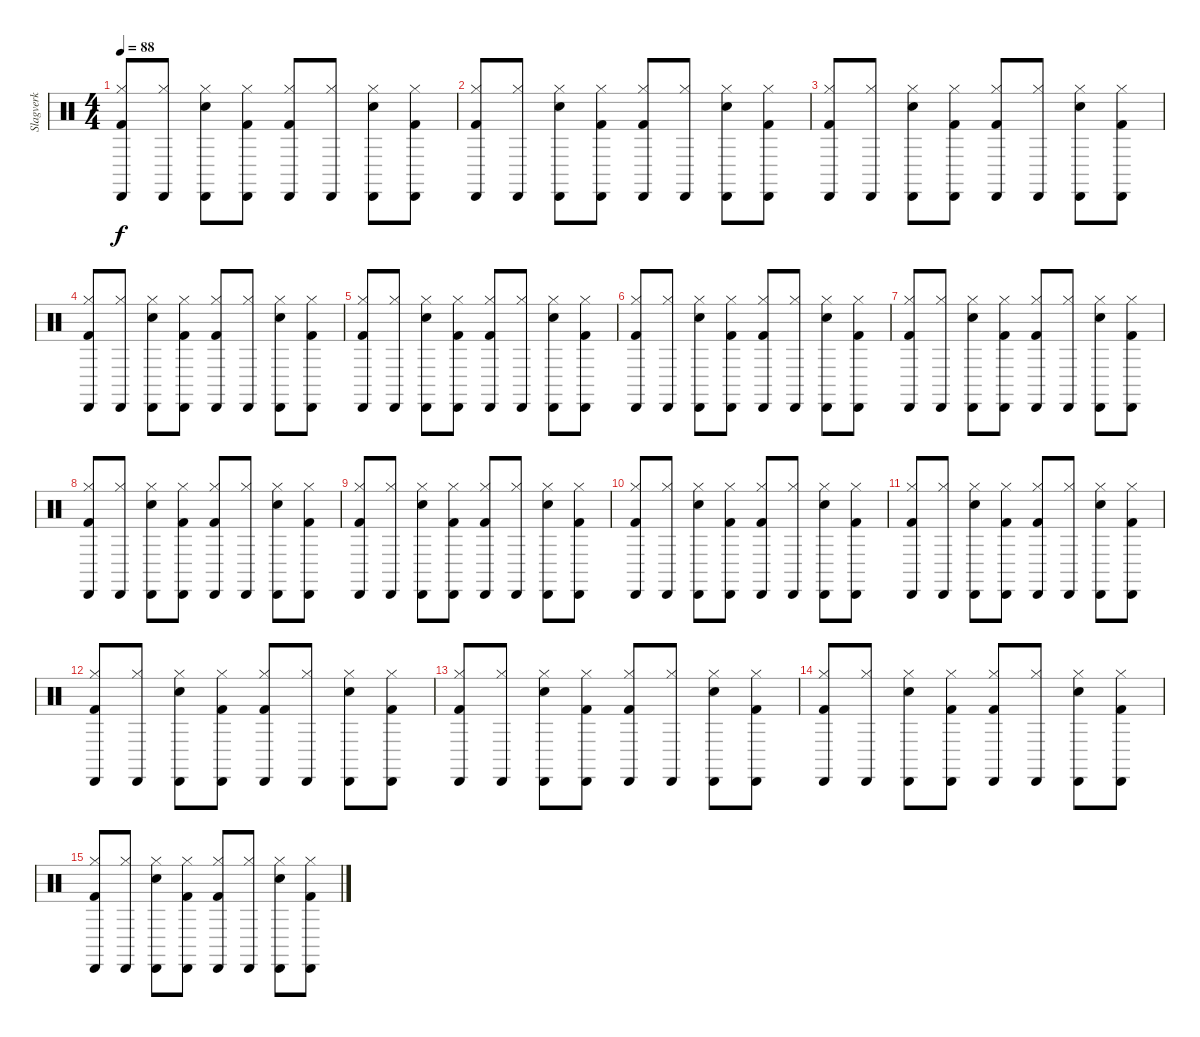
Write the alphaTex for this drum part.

\track ("Slagverk" "Slagverk") {instrument percussion}
\staff {score}
\articulation defaults
\ts (4 4)
\tempo 88
\clef neutral
\ks c
("Hi-Hat (closed)" "Cabasa (hit)" "Kick (hit) 2").8{dy f} ("Hi-Hat (closed)" "Cabasa (hit)").8 ("Hi-Hat (closed)" "Snare (hit) 2" "Cabasa (hit)").8 ("Hi-Hat (closed)" "Cabasa (hit)" "Kick (hit) 2").8 ("Hi-Hat (closed)" "Cabasa (hit)" "Kick (hit) 2").8 ("Hi-Hat (closed)" "Cabasa (hit)").8 ("Hi-Hat (closed)" "Snare (hit) 2" "Cabasa (hit)").8 ("Hi-Hat (closed)" "Cabasa (hit)" "Kick (hit) 2").8 |
("Hi-Hat (closed)" "Cabasa (hit)" "Kick (hit) 2").8 ("Hi-Hat (closed)" "Cabasa (hit)").8 ("Hi-Hat (closed)" "Snare (hit) 2" "Cabasa (hit)").8 ("Hi-Hat (closed)" "Cabasa (hit)" "Kick (hit) 2").8 ("Hi-Hat (closed)" "Cabasa (hit)" "Kick (hit) 2").8 ("Hi-Hat (closed)" "Cabasa (hit)").8 ("Hi-Hat (closed)" "Snare (hit) 2" "Cabasa (hit)").8 ("Hi-Hat (closed)" "Cabasa (hit)" "Kick (hit) 2").8 |
("Hi-Hat (closed)" "Cabasa (hit)" "Kick (hit) 2").8 ("Hi-Hat (closed)" "Cabasa (hit)").8 ("Hi-Hat (closed)" "Snare (hit) 2" "Cabasa (hit)").8 ("Hi-Hat (closed)" "Cabasa (hit)" "Kick (hit) 2").8 ("Hi-Hat (closed)" "Cabasa (hit)" "Kick (hit) 2").8 ("Hi-Hat (closed)" "Cabasa (hit)").8 ("Hi-Hat (closed)" "Snare (hit) 2" "Cabasa (hit)").8 ("Hi-Hat (closed)" "Cabasa (hit)" "Kick (hit) 2").8 |
("Hi-Hat (closed)" "Cabasa (hit)" "Kick (hit) 2").8 ("Hi-Hat (closed)" "Cabasa (hit)").8 ("Hi-Hat (closed)" "Snare (hit) 2" "Cabasa (hit)").8 ("Hi-Hat (closed)" "Cabasa (hit)" "Kick (hit) 2").8 ("Hi-Hat (closed)" "Cabasa (hit)" "Kick (hit) 2").8 ("Hi-Hat (closed)" "Cabasa (hit)").8 ("Hi-Hat (closed)" "Snare (hit) 2" "Cabasa (hit)").8 ("Hi-Hat (closed)" "Cabasa (hit)" "Kick (hit) 2").8 |
("Hi-Hat (closed)" "Cabasa (hit)" "Kick (hit) 2").8 ("Hi-Hat (closed)" "Cabasa (hit)").8 ("Hi-Hat (closed)" "Snare (hit) 2" "Cabasa (hit)").8 ("Hi-Hat (closed)" "Cabasa (hit)" "Kick (hit) 2").8 ("Hi-Hat (closed)" "Cabasa (hit)" "Kick (hit) 2").8 ("Hi-Hat (closed)" "Cabasa (hit)").8 ("Hi-Hat (closed)" "Snare (hit) 2" "Cabasa (hit)").8 ("Hi-Hat (closed)" "Cabasa (hit)" "Kick (hit) 2").8 |
("Hi-Hat (closed)" "Cabasa (hit)" "Kick (hit) 2").8 ("Hi-Hat (closed)" "Cabasa (hit)").8 ("Hi-Hat (closed)" "Snare (hit) 2" "Cabasa (hit)").8 ("Hi-Hat (closed)" "Cabasa (hit)" "Kick (hit) 2").8 ("Hi-Hat (closed)" "Cabasa (hit)" "Kick (hit) 2").8 ("Hi-Hat (closed)" "Cabasa (hit)").8 ("Hi-Hat (closed)" "Snare (hit) 2" "Cabasa (hit)").8 ("Hi-Hat (closed)" "Cabasa (hit)" "Kick (hit) 2").8 |
("Hi-Hat (closed)" "Cabasa (hit)" "Kick (hit) 2").8 ("Hi-Hat (closed)" "Cabasa (hit)").8 ("Hi-Hat (closed)" "Snare (hit) 2" "Cabasa (hit)").8 ("Hi-Hat (closed)" "Cabasa (hit)" "Kick (hit) 2").8 ("Hi-Hat (closed)" "Cabasa (hit)" "Kick (hit) 2").8 ("Hi-Hat (closed)" "Cabasa (hit)").8 ("Hi-Hat (closed)" "Snare (hit) 2" "Cabasa (hit)").8 ("Hi-Hat (closed)" "Cabasa (hit)" "Kick (hit) 2").8 |
("Hi-Hat (closed)" "Cabasa (hit)" "Kick (hit) 2").8 ("Hi-Hat (closed)" "Cabasa (hit)").8 ("Hi-Hat (closed)" "Snare (hit) 2" "Cabasa (hit)").8 ("Hi-Hat (closed)" "Cabasa (hit)" "Kick (hit) 2").8 ("Hi-Hat (closed)" "Cabasa (hit)" "Kick (hit) 2").8 ("Hi-Hat (closed)" "Cabasa (hit)").8 ("Hi-Hat (closed)" "Snare (hit) 2" "Cabasa (hit)").8 ("Hi-Hat (closed)" "Cabasa (hit)" "Kick (hit) 2").8 |
("Hi-Hat (closed)" "Cabasa (hit)" "Kick (hit) 2").8 ("Hi-Hat (closed)" "Cabasa (hit)").8 ("Hi-Hat (closed)" "Snare (hit) 2" "Cabasa (hit)").8 ("Hi-Hat (closed)" "Cabasa (hit)" "Kick (hit) 2").8 ("Hi-Hat (closed)" "Cabasa (hit)" "Kick (hit) 2").8 ("Hi-Hat (closed)" "Cabasa (hit)").8 ("Hi-Hat (closed)" "Snare (hit) 2" "Cabasa (hit)").8 ("Hi-Hat (closed)" "Cabasa (hit)" "Kick (hit) 2").8 |
("Hi-Hat (closed)" "Cabasa (hit)" "Kick (hit) 2").8 ("Hi-Hat (closed)" "Cabasa (hit)").8 ("Hi-Hat (closed)" "Snare (hit) 2" "Cabasa (hit)").8 ("Hi-Hat (closed)" "Cabasa (hit)" "Kick (hit) 2").8 ("Hi-Hat (closed)" "Cabasa (hit)" "Kick (hit) 2").8 ("Hi-Hat (closed)" "Cabasa (hit)").8 ("Hi-Hat (closed)" "Snare (hit) 2" "Cabasa (hit)").8 ("Hi-Hat (closed)" "Cabasa (hit)" "Kick (hit) 2").8 |
("Hi-Hat (closed)" "Cabasa (hit)" "Kick (hit) 2").8 ("Hi-Hat (closed)" "Cabasa (hit)").8 ("Hi-Hat (closed)" "Snare (hit) 2" "Cabasa (hit)").8 ("Hi-Hat (closed)" "Cabasa (hit)" "Kick (hit) 2").8 ("Hi-Hat (closed)" "Cabasa (hit)" "Kick (hit) 2").8 ("Hi-Hat (closed)" "Cabasa (hit)").8 ("Hi-Hat (closed)" "Snare (hit) 2" "Cabasa (hit)").8 ("Hi-Hat (closed)" "Cabasa (hit)" "Kick (hit) 2").8 |
("Hi-Hat (closed)" "Cabasa (hit)" "Kick (hit) 2").8 ("Hi-Hat (closed)" "Cabasa (hit)").8 ("Hi-Hat (closed)" "Snare (hit) 2" "Cabasa (hit)").8 ("Hi-Hat (closed)" "Cabasa (hit)" "Kick (hit) 2").8 ("Hi-Hat (closed)" "Cabasa (hit)" "Kick (hit) 2").8 ("Hi-Hat (closed)" "Cabasa (hit)").8 ("Hi-Hat (closed)" "Snare (hit) 2" "Cabasa (hit)").8 ("Hi-Hat (closed)" "Cabasa (hit)" "Kick (hit) 2").8 |
("Hi-Hat (closed)" "Cabasa (hit)" "Kick (hit) 2").8 ("Hi-Hat (closed)" "Cabasa (hit)").8 ("Hi-Hat (closed)" "Snare (hit) 2" "Cabasa (hit)").8 ("Hi-Hat (closed)" "Cabasa (hit)" "Kick (hit) 2").8 ("Hi-Hat (closed)" "Cabasa (hit)" "Kick (hit) 2").8 ("Hi-Hat (closed)" "Cabasa (hit)").8 ("Hi-Hat (closed)" "Snare (hit) 2" "Cabasa (hit)").8 ("Hi-Hat (closed)" "Cabasa (hit)" "Kick (hit) 2").8 |
("Hi-Hat (closed)" "Cabasa (hit)" "Kick (hit) 2").8 ("Hi-Hat (closed)" "Cabasa (hit)").8 ("Hi-Hat (closed)" "Snare (hit) 2" "Cabasa (hit)").8 ("Hi-Hat (closed)" "Cabasa (hit)" "Kick (hit) 2").8 ("Hi-Hat (closed)" "Cabasa (hit)" "Kick (hit) 2").8 ("Hi-Hat (closed)" "Cabasa (hit)").8 ("Hi-Hat (closed)" "Snare (hit) 2" "Cabasa (hit)").8 ("Hi-Hat (closed)" "Cabasa (hit)" "Kick (hit) 2").8 |
("Hi-Hat (closed)" "Cabasa (hit)" "Kick (hit) 2").8 ("Hi-Hat (closed)" "Cabasa (hit)").8 ("Hi-Hat (closed)" "Snare (hit) 2" "Cabasa (hit)").8 ("Hi-Hat (closed)" "Cabasa (hit)" "Kick (hit) 2").8 ("Hi-Hat (closed)" "Cabasa (hit)" "Kick (hit) 2").8 ("Hi-Hat (closed)" "Cabasa (hit)").8 ("Hi-Hat (closed)" "Snare (hit) 2" "Cabasa (hit)").8 ("Hi-Hat (closed)" "Cabasa (hit)" "Kick (hit) 2").8
